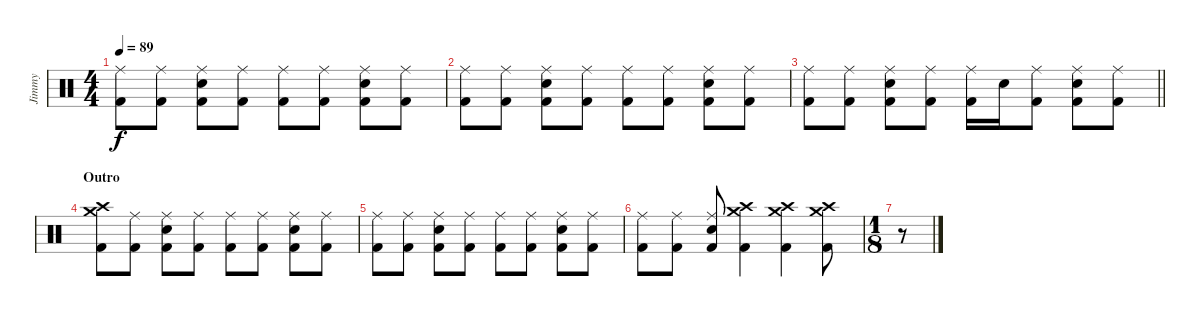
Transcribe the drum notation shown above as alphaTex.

\track ("Jimmy" "Jimmy") {instrument percussion}
\staff {score}
\articulation defaults
\ts (4 4)
\tempo 89
\clef neutral
\ks c
("Kick (hit) 2" "Ride (middle)").8{dy f} ("Kick (hit) 2" "Ride (middle)").8 ("Kick (hit) 2" "Ride (middle)" "Electric Snare (hit)").8 ("Kick (hit) 2" "Ride (middle)").8 ("Kick (hit) 2" "Ride (middle)").8 ("Kick (hit) 2" "Ride (middle)").8 ("Kick (hit) 2" "Ride (middle)" "Electric Snare (hit)").8 ("Kick (hit) 2" "Ride (middle)").8 |
("Kick (hit) 2" "Ride (middle)").8 ("Kick (hit) 2" "Ride (middle)").8 ("Kick (hit) 2" "Ride (middle)" "Electric Snare (hit)").8 ("Kick (hit) 2" "Ride (middle)").8 ("Kick (hit) 2" "Ride (middle)").8 ("Kick (hit) 2" "Ride (middle)").8 ("Kick (hit) 2" "Ride (middle)" "Electric Snare (hit)").8 ("Kick (hit) 2" "Ride (middle)").8 |
\barLineRight lightlight
("Kick (hit) 2" "Ride (middle)").8 ("Kick (hit) 2" "Ride (middle)").8 ("Kick (hit) 2" "Ride (middle)" "Electric Snare (hit)").8 ("Kick (hit) 2" "Ride (middle)").8 ("Kick (hit) 2" "Ride (middle)").16 "Electric Snare (hit)".16 ("Kick (hit) 2" "Ride (middle)").8 ("Kick (hit) 2" "Ride (middle)" "Electric Snare (hit)").8 ("Kick (hit) 2" "Ride (middle)").8 |
\section ("" "Outro")
("Kick (hit) 2" "Crash medium (hit)" "Crash high (hit)").8 ("Kick (hit) 2" "Ride (middle)").8 ("Kick (hit) 2" "Ride (middle)" "Electric Snare (hit)").8 ("Kick (hit) 2" "Ride (middle)").8 ("Kick (hit) 2" "Ride (middle)").8 ("Kick (hit) 2" "Ride (middle)").8 ("Kick (hit) 2" "Ride (middle)" "Electric Snare (hit)").8 ("Kick (hit) 2" "Ride (middle)").8 |
("Kick (hit) 2" "Ride (middle)").8 ("Kick (hit) 2" "Ride (middle)").8 ("Kick (hit) 2" "Ride (middle)" "Electric Snare (hit)").8 ("Kick (hit) 2" "Ride (middle)").8 ("Kick (hit) 2" "Ride (middle)").8 ("Kick (hit) 2" "Ride (middle)").8 ("Kick (hit) 2" "Ride (middle)" "Electric Snare (hit)").8 ("Kick (hit) 2" "Ride (middle)").8 |
("Kick (hit) 2" "Ride (middle)").8 ("Kick (hit) 2" "Ride (middle)").8 ("Kick (hit) 2" "Ride (middle)" "Electric Snare (hit)").8 ("Kick (hit) 2" "Crash high (hit)" "Crash medium (hit)").4 ("Kick (hit) 2" "Crash high (hit)" "Crash medium (hit)").4 ("Kick (hit) 2" "Crash high (hit)" "Crash medium (hit)").8 |
\ts (1 8)
r.8
